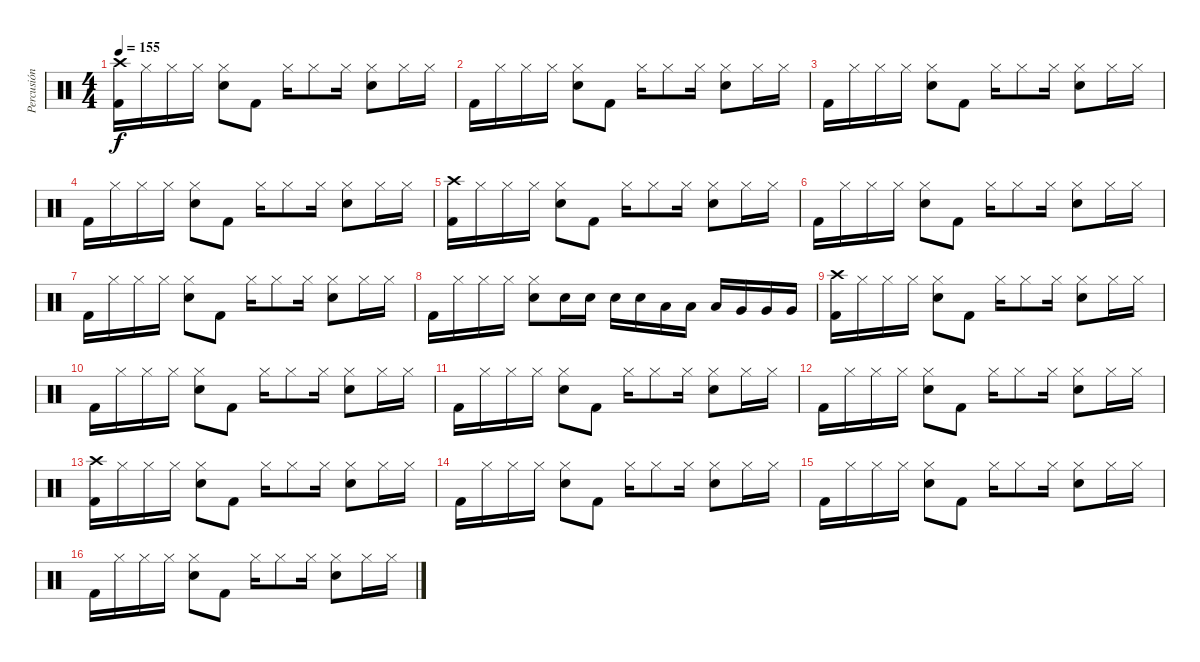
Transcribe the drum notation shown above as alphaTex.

\track ("Percusión" "Percusión") {instrument percussion}
\staff {score}
\articulation defaults
\ts (4 4)
\tempo 155
\clef neutral
\ks c
("Crash high (hit)" "Kick (hit) 2").16{dy f} "Hi-Hat (closed)".16 "Hi-Hat (closed)".16 "Hi-Hat (closed)".16 ("Hi-Hat (closed)" "Snare (hit) 2").8 "Kick (hit) 2".8 "Hi-Hat (closed)".16 "Hi-Hat (closed)".8 "Hi-Hat (closed)".16 ("Hi-Hat (closed)" "Snare (hit) 2").8 "Hi-Hat (closed)".16 "Hi-Hat (closed)".16 |
"Kick (hit) 2".16 "Hi-Hat (closed)".16 "Hi-Hat (closed)".16 "Hi-Hat (closed)".16 ("Hi-Hat (closed)" "Snare (hit) 2").8 "Kick (hit) 2".8 "Hi-Hat (closed)".16 "Hi-Hat (closed)".8 "Hi-Hat (closed)".16 ("Hi-Hat (closed)" "Snare (hit) 2").8 "Hi-Hat (closed)".16 "Hi-Hat (closed)".16 |
"Kick (hit) 2".16 "Hi-Hat (closed)".16 "Hi-Hat (closed)".16 "Hi-Hat (closed)".16 ("Hi-Hat (closed)" "Snare (hit) 2").8 "Kick (hit) 2".8 "Hi-Hat (closed)".16 "Hi-Hat (closed)".8 "Hi-Hat (closed)".16 ("Hi-Hat (closed)" "Snare (hit) 2").8 "Hi-Hat (closed)".16 "Hi-Hat (closed)".16 |
"Kick (hit) 2".16 "Hi-Hat (closed)".16 "Hi-Hat (closed)".16 "Hi-Hat (closed)".16 ("Hi-Hat (closed)" "Snare (hit) 2").8 "Kick (hit) 2".8 "Hi-Hat (closed)".16 "Hi-Hat (closed)".8 "Hi-Hat (closed)".16 ("Hi-Hat (closed)" "Snare (hit) 2").8 "Hi-Hat (closed)".16 "Hi-Hat (closed)".16 |
("Crash high (hit)" "Kick (hit) 2").16 "Hi-Hat (closed)".16 "Hi-Hat (closed)".16 "Hi-Hat (closed)".16 ("Hi-Hat (closed)" "Snare (hit) 2").8 "Kick (hit) 2".8 "Hi-Hat (closed)".16 "Hi-Hat (closed)".8 "Hi-Hat (closed)".16 ("Hi-Hat (closed)" "Snare (hit) 2").8 "Hi-Hat (closed)".16 "Hi-Hat (closed)".16 |
"Kick (hit) 2".16 "Hi-Hat (closed)".16 "Hi-Hat (closed)".16 "Hi-Hat (closed)".16 ("Hi-Hat (closed)" "Snare (hit) 2").8 "Kick (hit) 2".8 "Hi-Hat (closed)".16 "Hi-Hat (closed)".8 "Hi-Hat (closed)".16 ("Hi-Hat (closed)" "Snare (hit) 2").8 "Hi-Hat (closed)".16 "Hi-Hat (closed)".16 |
"Kick (hit) 2".16 "Hi-Hat (closed)".16 "Hi-Hat (closed)".16 "Hi-Hat (closed)".16 ("Hi-Hat (closed)" "Snare (hit) 2").8 "Kick (hit) 2".8 "Hi-Hat (closed)".16 "Hi-Hat (closed)".8 "Hi-Hat (closed)".16 ("Hi-Hat (closed)" "Snare (hit) 2").8 "Hi-Hat (closed)".16 "Hi-Hat (closed)".16 |
"Kick (hit) 2".16 "Hi-Hat (closed)".16 "Hi-Hat (closed)".16 "Hi-Hat (closed)".16 ("Hi-Hat (closed)" "Snare (hit) 2").8 "Snare (hit) 2".16 "Snare (hit) 2".16 "Snare (hit) 2".16 "Snare (hit) 2".16 "Low Tom (hit)".16 "Low Tom (hit)".16 "Low Tom (hit)".16 "Very Low Tom (hit)".16 "Very Low Tom (hit)".16 "Very Low Tom (hit)".16 |
("Crash high (hit)" "Kick (hit) 2").16 "Hi-Hat (closed)".16 "Hi-Hat (closed)".16 "Hi-Hat (closed)".16 ("Hi-Hat (closed)" "Snare (hit) 2").8 "Kick (hit) 2".8 "Hi-Hat (closed)".16 "Hi-Hat (closed)".8 "Hi-Hat (closed)".16 ("Hi-Hat (closed)" "Snare (hit) 2").8 "Hi-Hat (closed)".16 "Hi-Hat (closed)".16 |
"Kick (hit) 2".16 "Hi-Hat (closed)".16 "Hi-Hat (closed)".16 "Hi-Hat (closed)".16 ("Hi-Hat (closed)" "Snare (hit) 2").8 "Kick (hit) 2".8 "Hi-Hat (closed)".16 "Hi-Hat (closed)".8 "Hi-Hat (closed)".16 ("Hi-Hat (closed)" "Snare (hit) 2").8 "Hi-Hat (closed)".16 "Hi-Hat (closed)".16 |
"Kick (hit) 2".16 "Hi-Hat (closed)".16 "Hi-Hat (closed)".16 "Hi-Hat (closed)".16 ("Hi-Hat (closed)" "Snare (hit) 2").8 "Kick (hit) 2".8 "Hi-Hat (closed)".16 "Hi-Hat (closed)".8 "Hi-Hat (closed)".16 ("Hi-Hat (closed)" "Snare (hit) 2").8 "Hi-Hat (closed)".16 "Hi-Hat (closed)".16 |
"Kick (hit) 2".16 "Hi-Hat (closed)".16 "Hi-Hat (closed)".16 "Hi-Hat (closed)".16 ("Hi-Hat (closed)" "Snare (hit) 2").8 "Kick (hit) 2".8 "Hi-Hat (closed)".16 "Hi-Hat (closed)".8 "Hi-Hat (closed)".16 ("Hi-Hat (closed)" "Snare (hit) 2").8 "Hi-Hat (closed)".16 "Hi-Hat (closed)".16 |
("Crash high (hit)" "Kick (hit) 2").16 "Hi-Hat (closed)".16 "Hi-Hat (closed)".16 "Hi-Hat (closed)".16 ("Hi-Hat (closed)" "Snare (hit) 2").8 "Kick (hit) 2".8 "Hi-Hat (closed)".16 "Hi-Hat (closed)".8 "Hi-Hat (closed)".16 ("Hi-Hat (closed)" "Snare (hit) 2").8 "Hi-Hat (closed)".16 "Hi-Hat (closed)".16 |
"Kick (hit) 2".16 "Hi-Hat (closed)".16 "Hi-Hat (closed)".16 "Hi-Hat (closed)".16 ("Hi-Hat (closed)" "Snare (hit) 2").8 "Kick (hit) 2".8 "Hi-Hat (closed)".16 "Hi-Hat (closed)".8 "Hi-Hat (closed)".16 ("Hi-Hat (closed)" "Snare (hit) 2").8 "Hi-Hat (closed)".16 "Hi-Hat (closed)".16 |
"Kick (hit) 2".16 "Hi-Hat (closed)".16 "Hi-Hat (closed)".16 "Hi-Hat (closed)".16 ("Hi-Hat (closed)" "Snare (hit) 2").8 "Kick (hit) 2".8 "Hi-Hat (closed)".16 "Hi-Hat (closed)".8 "Hi-Hat (closed)".16 ("Hi-Hat (closed)" "Snare (hit) 2").8 "Hi-Hat (closed)".16 "Hi-Hat (closed)".16 |
"Kick (hit) 2".16 "Hi-Hat (closed)".16 "Hi-Hat (closed)".16 "Hi-Hat (closed)".16 ("Hi-Hat (closed)" "Snare (hit) 2").8 "Kick (hit) 2".8 "Hi-Hat (closed)".16 "Hi-Hat (closed)".8 "Hi-Hat (closed)".16 ("Hi-Hat (closed)" "Snare (hit) 2").8 "Hi-Hat (closed)".16 "Hi-Hat (closed)".16
